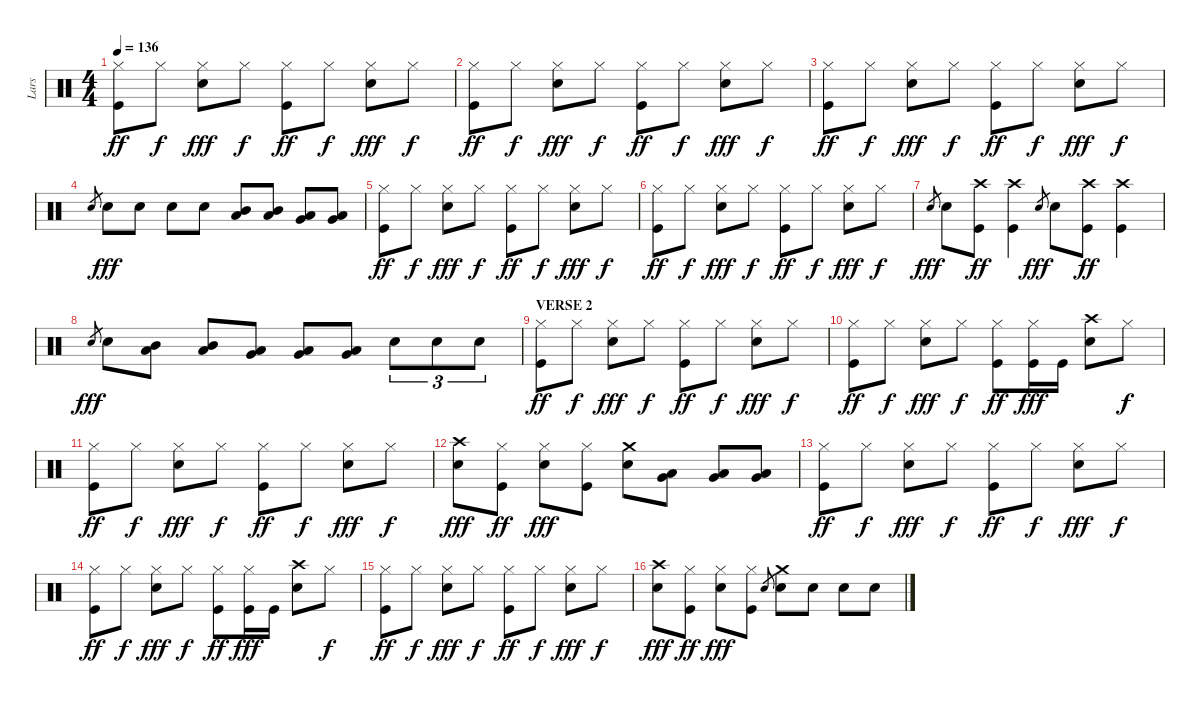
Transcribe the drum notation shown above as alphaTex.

\track ("Lars" "Lars") {instrument percussion}
\staff {score}
\articulation defaults
\ts (4 4)
\tempo 136
\clef neutral
\ks c
("Hi-Hat (closed)" "Kick (hit)").8{dy ff} "Hi-Hat (closed)".8{dy f} ("Hi-Hat (closed)" "Electric Snare (hit)").8{dy fff} "Hi-Hat (closed)".8{dy f} ("Hi-Hat (closed)" "Kick (hit)").8{dy ff} "Hi-Hat (closed)".8{dy f} ("Hi-Hat (closed)" "Electric Snare (hit)").8{dy fff} "Hi-Hat (closed)".8{dy f} |
("Hi-Hat (closed)" "Kick (hit)").8{dy ff} "Hi-Hat (closed)".8{dy f} ("Hi-Hat (closed)" "Electric Snare (hit)").8{dy fff} "Hi-Hat (closed)".8{dy f} ("Hi-Hat (closed)" "Kick (hit)").8{dy ff} "Hi-Hat (closed)".8{dy f} ("Hi-Hat (closed)" "Electric Snare (hit)").8{dy fff} "Hi-Hat (closed)".8{dy f} |
("Hi-Hat (closed)" "Kick (hit)").8{dy ff} "Hi-Hat (closed)".8{dy f} ("Hi-Hat (closed)" "Electric Snare (hit)").8{dy fff} "Hi-Hat (closed)".8{dy f} ("Hi-Hat (closed)" "Kick (hit)").8{dy ff} "Hi-Hat (closed)".8{dy f} ("Hi-Hat (closed)" "Electric Snare (hit)").8{dy fff} "Hi-Hat (closed)".8{dy f} |
"Electric Snare (hit)".8{gr} "Electric Snare (hit)".8{dy fff} "Electric Snare (hit)".8 "Electric Snare (hit)".8 "Electric Snare (hit)".8 ("Mid Tom (hit)" "Low Tom (hit)").8 ("Mid Tom (hit)" "Low Tom (hit)").8 ("Low Tom (hit)" "Very Low Tom (hit)").8 ("Low Tom (hit)" "Very Low Tom (hit)").8 |
("Hi-Hat (closed)" "Kick (hit)").8{dy ff} "Hi-Hat (closed)".8{dy f} ("Hi-Hat (closed)" "Electric Snare (hit)").8{dy fff} "Hi-Hat (closed)".8{dy f} ("Hi-Hat (closed)" "Kick (hit)").8{dy ff} "Hi-Hat (closed)".8{dy f} ("Hi-Hat (closed)" "Electric Snare (hit)").8{dy fff} "Hi-Hat (closed)".8{dy f} |
("Hi-Hat (closed)" "Kick (hit)").8{dy ff} "Hi-Hat (closed)".8{dy f} ("Hi-Hat (closed)" "Electric Snare (hit)").8{dy fff} "Hi-Hat (closed)".8{dy f} ("Hi-Hat (closed)" "Kick (hit)").8{dy ff} "Hi-Hat (closed)".8{dy f} ("Hi-Hat (closed)" "Electric Snare (hit)").8{dy fff} "Hi-Hat (closed)".8{dy f} |
"Electric Snare (hit)".8{gr dy fff} "Electric Snare (hit)".8 ("Crash high (hit)" "Kick (hit)").8{dy ff} ("Crash high (hit)" "Kick (hit)").4 "Electric Snare (hit)".8{gr dy fff} "Electric Snare (hit)".8 ("Crash high (hit)" "Kick (hit)").8{dy ff} ("Crash high (hit)" "Kick (hit)").4 |
"Electric Snare (hit)".8{gr dy fff} "Electric Snare (hit)".8 ("Mid Tom (hit)" "Low Tom (hit)").8 ("Mid Tom (hit)" "Low Tom (hit)").8 ("Low Tom (hit)" "Very Low Tom (hit)").8 ("Low Tom (hit)" "Very Low Tom (hit)").8 ("Very Low Tom (hit)" "Low Floor Tom (hit)").8 "Electric Snare (hit)".8{tu (3 2)} "Electric Snare (hit)".8{tu (3 2)} "Electric Snare (hit)".8{tu (3 2)} |
\section ("" "VERSE 2")
("Hi-Hat (closed)" "Kick (hit)").8{dy ff} "Hi-Hat (closed)".8{dy f} ("Hi-Hat (closed)" "Electric Snare (hit)").8{dy fff} "Hi-Hat (closed)".8{dy f} ("Hi-Hat (closed)" "Kick (hit)").8{dy ff} "Hi-Hat (closed)".8{dy f} ("Hi-Hat (closed)" "Electric Snare (hit)").8{dy fff} "Hi-Hat (closed)".8{dy f} |
("Hi-Hat (closed)" "Kick (hit)").8{dy ff} "Hi-Hat (closed)".8{dy f} ("Hi-Hat (closed)" "Electric Snare (hit)").8{dy fff} "Hi-Hat (closed)".8{dy f} ("Hi-Hat (closed)" "Kick (hit)").8{dy ff} ("Hi-Hat (closed)" "Kick (hit)").16{dy fff} "Kick (hit)".16 ("Crash high (hit)" "Electric Snare (hit)").8 "Hi-Hat (closed)".8{dy f} |
("Hi-Hat (closed)" "Kick (hit)").8{dy ff} "Hi-Hat (closed)".8{dy f} ("Hi-Hat (closed)" "Electric Snare (hit)").8{dy fff} "Hi-Hat (closed)".8{dy f} ("Hi-Hat (closed)" "Kick (hit)").8{dy ff} "Hi-Hat (closed)".8{dy f} ("Hi-Hat (closed)" "Electric Snare (hit)").8{dy fff} "Hi-Hat (closed)".8{dy f} |
("Crash high (hit)" "Electric Snare (hit)").8{dy fff} ("Hi-Hat (closed)" "Kick (hit)").8{dy ff} ("Hi-Hat (closed)" "Electric Snare (hit)").8{dy fff} ("Hi-Hat (closed)" "Kick (hit)").8 ("Crash medium (hit)" "Electric Snare (hit)").8 ("Low Tom (hit)" "Very Low Tom (hit)").8 ("Low Tom (hit)" "Very Low Tom (hit)").8 ("Low Tom (hit)" "Very Low Tom (hit)").8 |
("Hi-Hat (closed)" "Kick (hit)").8{dy ff} "Hi-Hat (closed)".8{dy f} ("Hi-Hat (closed)" "Electric Snare (hit)").8{dy fff} "Hi-Hat (closed)".8{dy f} ("Hi-Hat (closed)" "Kick (hit)").8{dy ff} "Hi-Hat (closed)".8{dy f} ("Hi-Hat (closed)" "Electric Snare (hit)").8{dy fff} "Hi-Hat (closed)".8{dy f} |
("Hi-Hat (closed)" "Kick (hit)").8{dy ff} "Hi-Hat (closed)".8{dy f} ("Hi-Hat (closed)" "Electric Snare (hit)").8{dy fff} "Hi-Hat (closed)".8{dy f} ("Hi-Hat (closed)" "Kick (hit)").8{dy ff} ("Hi-Hat (closed)" "Kick (hit)").16{dy fff} "Kick (hit)".16 ("Crash high (hit)" "Electric Snare (hit)").8 "Hi-Hat (closed)".8{dy f} |
("Hi-Hat (closed)" "Kick (hit)").8{dy ff} "Hi-Hat (closed)".8{dy f} ("Hi-Hat (closed)" "Electric Snare (hit)").8{dy fff} "Hi-Hat (closed)".8{dy f} ("Hi-Hat (closed)" "Kick (hit)").8{dy ff} "Hi-Hat (closed)".8{dy f} ("Hi-Hat (closed)" "Electric Snare (hit)").8{dy fff} "Hi-Hat (closed)".8{dy f} |
("Crash high (hit)" "Electric Snare (hit)").8{dy fff} ("Hi-Hat (closed)" "Kick (hit)").8{dy ff} ("Hi-Hat (closed)" "Electric Snare (hit)").8{dy fff} ("Hi-Hat (closed)" "Kick (hit)").8 "Electric Snare (hit)".8{gr} ("Crash medium (hit)" "Electric Snare (hit)").8 "Electric Snare (hit)".8 "Electric Snare (hit)".8 "Electric Snare (hit)".8
